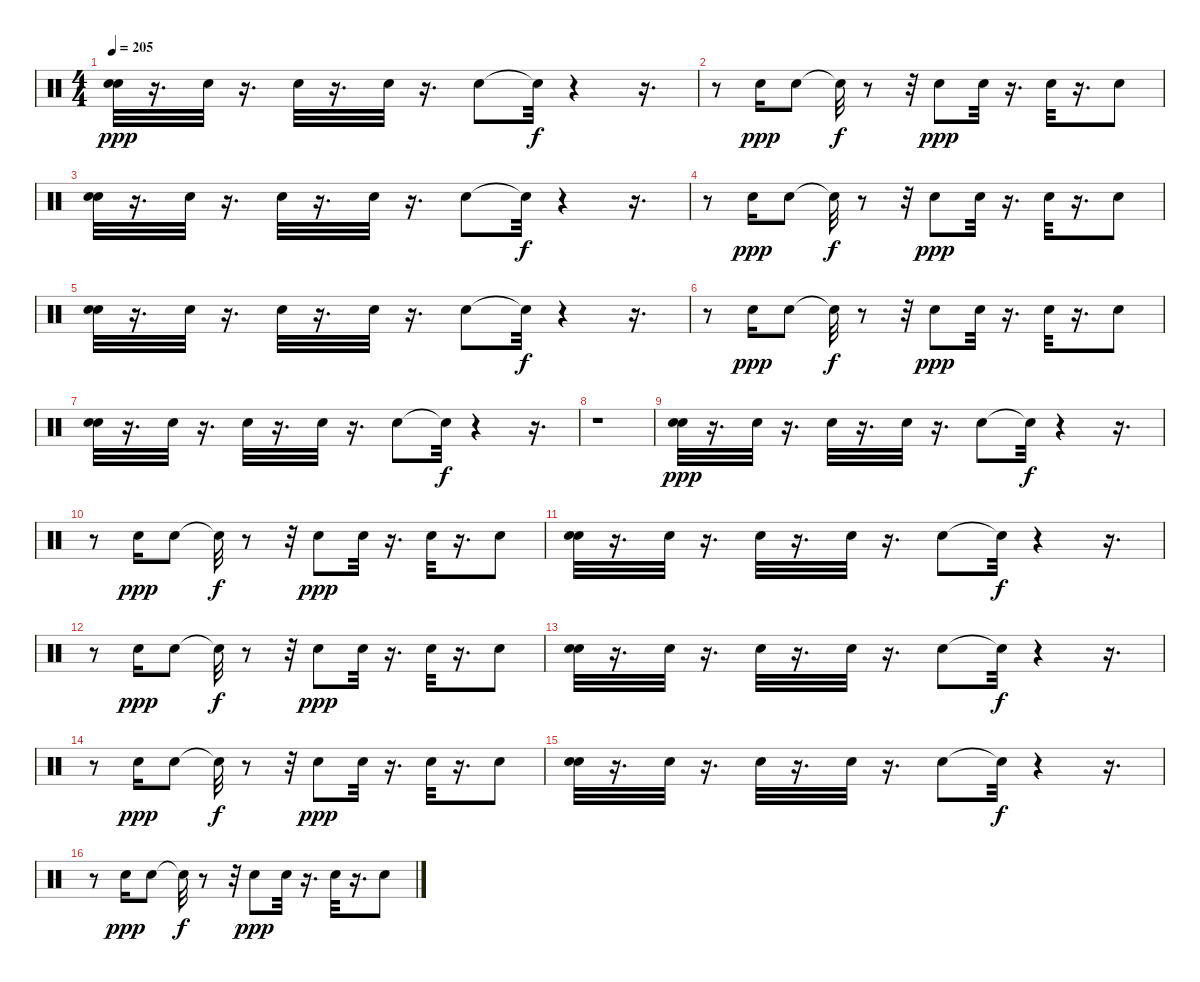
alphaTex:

\track "" {instrument percussion}
\staff {score}
\articulation defaults
\ts (4 4)
\tempo 205
\clef neutral
\ks c
("Electric Snare (hit)" "Electric Snare (hit)").32{dy ppp} r.16{d} "Electric Snare (hit)".32 r.16{d} "Electric Snare (hit)".32 r.16{d} "Electric Snare (hit)".32 r.16{d} "Electric Snare (hit)".8 "Snare (hit)"{t}.32{dy f} r.4 r.16{d} |
r.8 "Electric Snare (hit)".16{dy ppp} "Electric Snare (hit)".8 "Snare (hit)"{t}.32{dy f} r.8 r.32 "Electric Snare (hit)".8{dy ppp} "Electric Snare (hit)".32 r.16{d} "Electric Snare (hit)".32 r.16{d} "Electric Snare (hit)".8 |
("Electric Snare (hit)" "Electric Snare (hit)").32 r.16{d} "Electric Snare (hit)".32 r.16{d} "Electric Snare (hit)".32 r.16{d} "Electric Snare (hit)".32 r.16{d} "Electric Snare (hit)".8 "Snare (hit)"{t}.32{dy f} r.4 r.16{d} |
r.8 "Electric Snare (hit)".16{dy ppp} "Electric Snare (hit)".8 "Snare (hit)"{t}.32{dy f} r.8 r.32 "Electric Snare (hit)".8{dy ppp} "Electric Snare (hit)".32 r.16{d} "Electric Snare (hit)".32 r.16{d} "Electric Snare (hit)".8 |
("Electric Snare (hit)" "Electric Snare (hit)").32 r.16{d} "Electric Snare (hit)".32 r.16{d} "Electric Snare (hit)".32 r.16{d} "Electric Snare (hit)".32 r.16{d} "Electric Snare (hit)".8 "Snare (hit)"{t}.32{dy f} r.4 r.16{d} |
r.8 "Electric Snare (hit)".16{dy ppp} "Electric Snare (hit)".8 "Snare (hit)"{t}.32{dy f} r.8 r.32 "Electric Snare (hit)".8{dy ppp} "Electric Snare (hit)".32 r.16{d} "Electric Snare (hit)".32 r.16{d} "Electric Snare (hit)".8 |
("Electric Snare (hit)" "Electric Snare (hit)").32 r.16{d} "Electric Snare (hit)".32 r.16{d} "Electric Snare (hit)".32 r.16{d} "Electric Snare (hit)".32 r.16{d} "Electric Snare (hit)".8 "Snare (hit)"{t}.32{dy f} r.4 r.16{d} |
r.1 |
("Electric Snare (hit)" "Electric Snare (hit)").32{dy ppp} r.16{d} "Electric Snare (hit)".32 r.16{d} "Electric Snare (hit)".32 r.16{d} "Electric Snare (hit)".32 r.16{d} "Electric Snare (hit)".8 "Snare (hit)"{t}.32{dy f} r.4 r.16{d} |
r.8 "Electric Snare (hit)".16{dy ppp} "Electric Snare (hit)".8 "Snare (hit)"{t}.32{dy f} r.8 r.32 "Electric Snare (hit)".8{dy ppp} "Electric Snare (hit)".32 r.16{d} "Electric Snare (hit)".32 r.16{d} "Electric Snare (hit)".8 |
("Electric Snare (hit)" "Electric Snare (hit)").32 r.16{d} "Electric Snare (hit)".32 r.16{d} "Electric Snare (hit)".32 r.16{d} "Electric Snare (hit)".32 r.16{d} "Electric Snare (hit)".8 "Snare (hit)"{t}.32{dy f} r.4 r.16{d} |
r.8 "Electric Snare (hit)".16{dy ppp} "Electric Snare (hit)".8 "Snare (hit)"{t}.32{dy f} r.8 r.32 "Electric Snare (hit)".8{dy ppp} "Electric Snare (hit)".32 r.16{d} "Electric Snare (hit)".32 r.16{d} "Electric Snare (hit)".8 |
("Electric Snare (hit)" "Electric Snare (hit)").32 r.16{d} "Electric Snare (hit)".32 r.16{d} "Electric Snare (hit)".32 r.16{d} "Electric Snare (hit)".32 r.16{d} "Electric Snare (hit)".8 "Snare (hit)"{t}.32{dy f} r.4 r.16{d} |
r.8 "Electric Snare (hit)".16{dy ppp} "Electric Snare (hit)".8 "Snare (hit)"{t}.32{dy f} r.8 r.32 "Electric Snare (hit)".8{dy ppp} "Electric Snare (hit)".32 r.16{d} "Electric Snare (hit)".32 r.16{d} "Electric Snare (hit)".8 |
("Electric Snare (hit)" "Electric Snare (hit)").32 r.16{d} "Electric Snare (hit)".32 r.16{d} "Electric Snare (hit)".32 r.16{d} "Electric Snare (hit)".32 r.16{d} "Electric Snare (hit)".8 "Snare (hit)"{t}.32{dy f} r.4 r.16{d} |
r.8 "Electric Snare (hit)".16{dy ppp} "Electric Snare (hit)".8 "Snare (hit)"{t}.32{dy f} r.8 r.32 "Electric Snare (hit)".8{dy ppp} "Electric Snare (hit)".32 r.16{d} "Electric Snare (hit)".32 r.16{d} "Electric Snare (hit)".8
